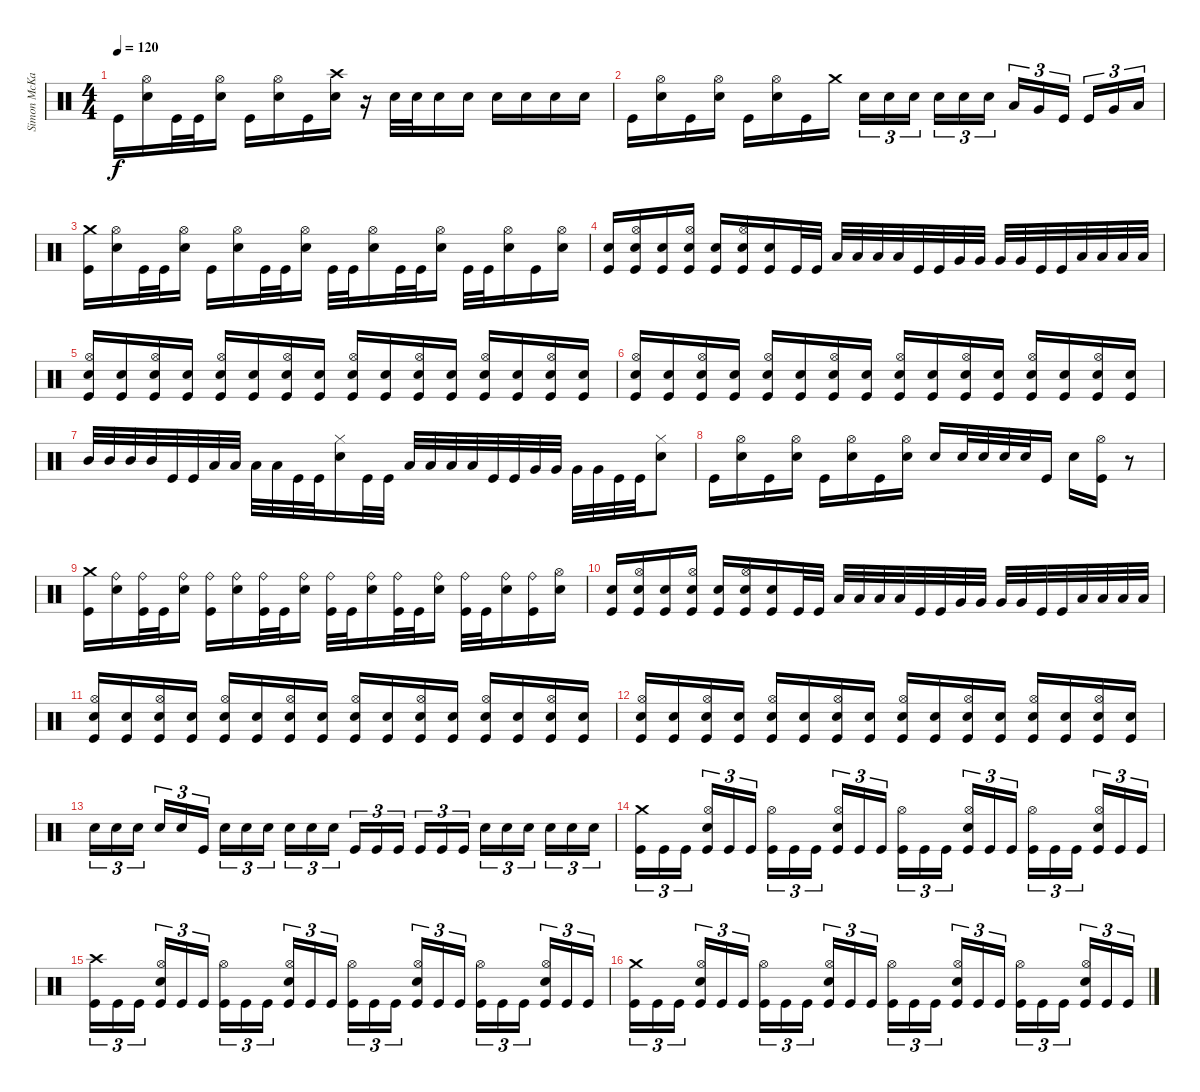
\track ("Simon McKay" "Simon McKa") {instrument percussion}
\staff {score}
\articulation defaults
\ts (4 4)
\tempo 120
\clef neutral
\ks c "Kick (hit)".16{dy f}
("Hi-Hat (open)" "Electric Snare (hit)").16 "Kick (hit)".32 "Kick (hit)".32 ("Hi-Hat (open)" "Electric Snare (hit)").16 "Kick (hit)".16 ("Hi-Hat (open)" "Electric Snare (hit)").16 "Kick (hit)".16 ("Crash high (hit)" "Electric Snare (hit)").16 r.16 "Electric Snare (hit)".32 "Electric Snare (hit)".32 "Electric Snare (hit)".16 "Electric Snare (hit)".16 "Electric Snare (hit)".16 "Electric Snare (hit)".16 "Electric Snare (hit)".16 "Electric Snare (hit)".16 |
"Kick (hit)".16 ("Hi-Hat (open)" "Electric Snare (hit)").16 "Kick (hit)".16 ("Hi-Hat (open)" "Electric Snare (hit)").16 "Kick (hit)".16 ("Hi-Hat (open)" "Electric Snare (hit)").16 "Kick (hit)".16 "Crash medium (hit)".16 "Electric Snare (hit)".16{tu (3 2)} "Electric Snare (hit)".16{tu (3 2)} "Electric Snare (hit)".16{tu (3 2) beam splitsecondary} "Electric Snare (hit)".16{tu (3 2)} "Electric Snare (hit)".16{tu (3 2)} "Electric Snare (hit)".16{tu (3 2)} "Low Tom (hit)".16{tu (3 2)} "Very Low Tom (hit)".16{tu (3 2)} "Kick (hit)".16{tu (3 2) beam splitsecondary} "Kick (hit)".16{tu (3 2)} "Very Low Tom (hit)".16{tu (3 2)} "Low Floor Tom (hit)".16{tu (3 2)} |
("Crash medium (hit)" "Kick (hit)").16 ("Hi-Hat (open)" "Electric Snare (hit)").16 "Kick (hit)".32 "Kick (hit)".32 ("Hi-Hat (open)" "Electric Snare (hit)").16 "Kick (hit)".16 ("Hi-Hat (open)" "Electric Snare (hit)").16 "Kick (hit)".32 "Kick (hit)".32 ("Hi-Hat (open)" "Electric Snare (hit)").16 "Kick (hit)".32 "Kick (hit)".32 ("Hi-Hat (open)" "Electric Snare (hit)").16 "Kick (hit)".32 "Kick (hit)".32 ("Hi-Hat (open)" "Electric Snare (hit)").16 "Kick (hit)".32 "Kick (hit)".32 ("Hi-Hat (open)" "Electric Snare (hit)").16 "Kick (hit)".16 ("Hi-Hat (open)" "Electric Snare (hit)").16 |
("Electric Snare (hit)" "Kick (hit)").16 ("Hi-Hat (open)" "Electric Snare (hit)" "Kick (hit)").16 ("Electric Snare (hit)" "Kick (hit)").16 ("Hi-Hat (open)" "Electric Snare (hit)" "Kick (hit)").16 ("Electric Snare (hit)" "Kick (hit)").16 ("Hi-Hat (open)" "Electric Snare (hit)" "Kick (hit)").16 ("Electric Snare (hit)" "Kick (hit)").16 "Kick (hit)".32 "Kick (hit)".32 "Low Tom (hit)".32 "Low Tom (hit)".32 "Low Tom (hit)".32 "Low Tom (hit)".32 "Kick (hit)".32 "Kick (hit)".32 "Very Low Tom (hit)".32 "Very Low Tom (hit)".32 "Very Low Tom (hit)".32 "Very Low Tom (hit)".32 "Kick (hit)".32 "Kick (hit)".32 "Low Floor Tom (hit)".32 "Low Floor Tom (hit)".32 "Low Floor Tom (hit)".32 "Low Floor Tom (hit)".32 |
("Hi-Hat (open)" "Electric Snare (hit)" "Kick (hit)").16 ("Electric Snare (hit)" "Kick (hit)").16 ("Hi-Hat (open)" "Electric Snare (hit)" "Kick (hit)").16 ("Electric Snare (hit)" "Kick (hit)").16 ("Hi-Hat (open)" "Electric Snare (hit)" "Kick (hit)").16 ("Electric Snare (hit)" "Kick (hit)").16 ("Hi-Hat (open)" "Electric Snare (hit)" "Kick (hit)").16 ("Electric Snare (hit)" "Kick (hit)").16 ("Hi-Hat (open)" "Electric Snare (hit)" "Kick (hit)").16 ("Electric Snare (hit)" "Kick (hit)").16 ("Hi-Hat (open)" "Electric Snare (hit)" "Kick (hit)").16 ("Electric Snare (hit)" "Kick (hit)").16 ("Hi-Hat (open)" "Electric Snare (hit)" "Kick (hit)").16 ("Electric Snare (hit)" "Kick (hit)").16 ("Hi-Hat (open)" "Electric Snare (hit)" "Kick (hit)").16 ("Electric Snare (hit)" "Kick (hit)").16 |
("Hi-Hat (open)" "Electric Snare (hit)" "Kick (hit)").16 ("Electric Snare (hit)" "Kick (hit)").16 ("Hi-Hat (open)" "Electric Snare (hit)" "Kick (hit)").16 ("Electric Snare (hit)" "Kick (hit)").16 ("Hi-Hat (open)" "Electric Snare (hit)" "Kick (hit)").16 ("Electric Snare (hit)" "Kick (hit)").16 ("Hi-Hat (open)" "Electric Snare (hit)" "Kick (hit)").16 ("Electric Snare (hit)" "Kick (hit)").16 ("Hi-Hat (open)" "Electric Snare (hit)" "Kick (hit)").16 ("Electric Snare (hit)" "Kick (hit)").16 ("Hi-Hat (open)" "Electric Snare (hit)" "Kick (hit)").16 ("Electric Snare (hit)" "Kick (hit)").16 ("Hi-Hat (open)" "Electric Snare (hit)" "Kick (hit)").16 ("Electric Snare (hit)" "Kick (hit)").16 ("Hi-Hat (open)" "Electric Snare (hit)" "Kick (hit)").16 ("Electric Snare (hit)" "Kick (hit)").16 |
"Mid Tom (hit)".32 "Mid Tom (hit)".32 "Mid Tom (hit)".32 "Mid Tom (hit)".32 "Kick (hit)".32 "Kick (hit)".32 "Low Tom (hit)".32 "Low Tom (hit)".32 "Low Tom (hit)".32 "Low Tom (hit)".32 "Kick (hit)".32 "Kick (hit)".32 ("Hi-Hat (closed)" "Electric Snare (hit)").16 "Kick (hit)".32 "Kick (hit)".32 "Low Tom (hit)".32 "Low Tom (hit)".32 "Low Tom (hit)".32 "Low Tom (hit)".32 "Kick (hit)".32 "Kick (hit)".32 "Very Low Tom (hit)".32 "Very Low Tom (hit)".32 "Very Low Tom (hit)".32 "Very Low Tom (hit)".32 "Kick (hit)".32 "Kick (hit)".32 ("Hi-Hat (closed)" "Electric Snare (hit)").8 |
"Kick (hit)".16 ("Hi-Hat (open)" "Electric Snare (hit)").16 "Kick (hit)".16 ("Hi-Hat (open)" "Electric Snare (hit)").16 "Kick (hit)".16 ("Hi-Hat (open)" "Electric Snare (hit)").16 "Kick (hit)".16 ("Hi-Hat (open)" "Electric Snare (hit)").16 "Electric Snare (hit)".16 "Electric Snare (hit)".32 "Electric Snare (hit)".32 "Electric Snare (hit)".32 "Electric Snare (hit)".32 "Kick (hit)".16 "Electric Snare (hit)".16 ("Hi-Hat (open)" "Kick (hit)").16 r.8 |
("Crash medium (hit)" "Kick (hit)").16 ("Ride (bell)" "Electric Snare (hit)").16 ("Ride (bell)" "Kick (hit)").32 "Kick (hit)".32 ("Ride (bell)" "Electric Snare (hit)").16 ("Ride (bell)" "Kick (hit)").16 ("Ride (bell)" "Electric Snare (hit)").16 ("Ride (bell)" "Kick (hit)").32 "Kick (hit)".32 ("Ride (bell)" "Electric Snare (hit)").16 ("Ride (bell)" "Kick (hit)").32 "Kick (hit)".32 ("Ride (bell)" "Electric Snare (hit)").16 ("Ride (bell)" "Kick (hit)").32 "Kick (hit)".32 ("Ride (bell)" "Electric Snare (hit)").16 ("Ride (bell)" "Kick (hit)").32 "Kick (hit)".32 ("Ride (bell)" "Electric Snare (hit)").16 ("Ride (bell)" "Kick (hit)").16 ("Hi-Hat (open)" "Electric Snare (hit)").16 |
("Electric Snare (hit)" "Kick (hit)").16 ("Hi-Hat (open)" "Electric Snare (hit)" "Kick (hit)").16 ("Electric Snare (hit)" "Kick (hit)").16 ("Hi-Hat (open)" "Electric Snare (hit)" "Kick (hit)").16 ("Electric Snare (hit)" "Kick (hit)").16 ("Hi-Hat (open)" "Electric Snare (hit)" "Kick (hit)").16 ("Electric Snare (hit)" "Kick (hit)").16 "Kick (hit)".32 "Kick (hit)".32 "Low Tom (hit)".32 "Low Tom (hit)".32 "Low Tom (hit)".32 "Low Tom (hit)".32 "Kick (hit)".32 "Kick (hit)".32 "Very Low Tom (hit)".32 "Very Low Tom (hit)".32 "Very Low Tom (hit)".32 "Very Low Tom (hit)".32 "Kick (hit)".32 "Kick (hit)".32 "Low Floor Tom (hit)".32 "Low Floor Tom (hit)".32 "Low Floor Tom (hit)".32 "Low Floor Tom (hit)".32 |
("Hi-Hat (open)" "Electric Snare (hit)" "Kick (hit)").16 ("Electric Snare (hit)" "Kick (hit)").16 ("Hi-Hat (open)" "Electric Snare (hit)" "Kick (hit)").16 ("Electric Snare (hit)" "Kick (hit)").16 ("Hi-Hat (open)" "Electric Snare (hit)" "Kick (hit)").16 ("Electric Snare (hit)" "Kick (hit)").16 ("Hi-Hat (open)" "Electric Snare (hit)" "Kick (hit)").16 ("Electric Snare (hit)" "Kick (hit)").16 ("Hi-Hat (open)" "Electric Snare (hit)" "Kick (hit)").16 ("Electric Snare (hit)" "Kick (hit)").16 ("Hi-Hat (open)" "Electric Snare (hit)" "Kick (hit)").16 ("Electric Snare (hit)" "Kick (hit)").16 ("Hi-Hat (open)" "Electric Snare (hit)" "Kick (hit)").16 ("Electric Snare (hit)" "Kick (hit)").16 ("Hi-Hat (open)" "Electric Snare (hit)" "Kick (hit)").16 ("Electric Snare (hit)" "Kick (hit)").16 |
("Hi-Hat (open)" "Electric Snare (hit)" "Kick (hit)").16 ("Electric Snare (hit)" "Kick (hit)").16 ("Hi-Hat (open)" "Electric Snare (hit)" "Kick (hit)").16 ("Electric Snare (hit)" "Kick (hit)").16 ("Hi-Hat (open)" "Electric Snare (hit)" "Kick (hit)").16 ("Electric Snare (hit)" "Kick (hit)").16 ("Hi-Hat (open)" "Electric Snare (hit)" "Kick (hit)").16 ("Electric Snare (hit)" "Kick (hit)").16 ("Hi-Hat (open)" "Electric Snare (hit)" "Kick (hit)").16 ("Electric Snare (hit)" "Kick (hit)").16 ("Hi-Hat (open)" "Electric Snare (hit)" "Kick (hit)").16 ("Electric Snare (hit)" "Kick (hit)").16 ("Hi-Hat (open)" "Electric Snare (hit)" "Kick (hit)").16 ("Electric Snare (hit)" "Kick (hit)").16 ("Hi-Hat (open)" "Electric Snare (hit)" "Kick (hit)").16 ("Electric Snare (hit)" "Kick (hit)").16 |
"Electric Snare (hit)".16{tu (3 2)} "Electric Snare (hit)".16{tu (3 2)} "Electric Snare (hit)".16{tu (3 2) beam splitsecondary} "Electric Snare (hit)".16{tu (3 2)} "Electric Snare (hit)".16{tu (3 2)} "Kick (hit)".16{tu (3 2)} "Electric Snare (hit)".16{tu (3 2)} "Electric Snare (hit)".16{tu (3 2)} "Electric Snare (hit)".16{tu (3 2) beam splitsecondary} "Electric Snare (hit)".16{tu (3 2)} "Electric Snare (hit)".16{tu (3 2)} "Electric Snare (hit)".16{tu (3 2)} "Kick (hit)".16{tu (3 2)} "Kick (hit)".16{tu (3 2)} "Kick (hit)".16{tu (3 2) beam splitsecondary} "Kick (hit)".16{tu (3 2)} "Kick (hit)".16{tu (3 2)} "Kick (hit)".16{tu (3 2)} "Electric Snare (hit)".16{tu (3 2)} "Electric Snare (hit)".16{tu (3 2)} "Electric Snare (hit)".16{tu (3 2) beam splitsecondary} "Electric Snare (hit)".16{tu (3 2)} "Electric Snare (hit)".16{tu (3 2)} "Electric Snare (hit)".16{tu (3 2)} |
("Crash medium (hit)" "Kick (hit)").16{tu (3 2)} "Kick (hit)".16{tu (3 2)} "Kick (hit)".16{tu (3 2) beam splitsecondary} ("Hi-Hat (open)" "Electric Snare (hit)" "Kick (hit)").16{tu (3 2)} "Kick (hit)".16{tu (3 2)} "Kick (hit)".16{tu (3 2)} ("Hi-Hat (open)" "Kick (hit)").16{tu (3 2)} "Kick (hit)".16{tu (3 2)} "Kick (hit)".16{tu (3 2) beam splitsecondary} ("Hi-Hat (open)" "Electric Snare (hit)" "Kick (hit)").16{tu (3 2)} "Kick (hit)".16{tu (3 2)} "Kick (hit)".16{tu (3 2)} ("Hi-Hat (open)" "Kick (hit)").16{tu (3 2)} "Kick (hit)".16{tu (3 2)} "Kick (hit)".16{tu (3 2) beam splitsecondary} ("Hi-Hat (open)" "Electric Snare (hit)" "Kick (hit)").16{tu (3 2)} "Kick (hit)".16{tu (3 2)} "Kick (hit)".16{tu (3 2)} ("Hi-Hat (open)" "Kick (hit)").16{tu (3 2)} "Kick (hit)".16{tu (3 2)} "Kick (hit)".16{tu (3 2) beam splitsecondary} ("Hi-Hat (open)" "Electric Snare (hit)" "Kick (hit)").16{tu (3 2)} "Kick (hit)".16{tu (3 2)} "Kick (hit)".16{tu (3 2)} |
("Crash high (hit)" "Kick (hit)").16{tu (3 2)} "Kick (hit)".16{tu (3 2)} "Kick (hit)".16{tu (3 2) beam splitsecondary} ("Hi-Hat (open)" "Electric Snare (hit)" "Kick (hit)").16{tu (3 2)} "Kick (hit)".16{tu (3 2)} "Kick (hit)".16{tu (3 2)} ("Hi-Hat (open)" "Kick (hit)").16{tu (3 2)} "Kick (hit)".16{tu (3 2)} "Kick (hit)".16{tu (3 2) beam splitsecondary} ("Hi-Hat (open)" "Electric Snare (hit)" "Kick (hit)").16{tu (3 2)} "Kick (hit)".16{tu (3 2)} "Kick (hit)".16{tu (3 2)} ("Hi-Hat (open)" "Kick (hit)").16{tu (3 2)} "Kick (hit)".16{tu (3 2)} "Kick (hit)".16{tu (3 2) beam splitsecondary} ("Hi-Hat (open)" "Electric Snare (hit)" "Kick (hit)").16{tu (3 2)} "Kick (hit)".16{tu (3 2)} "Kick (hit)".16{tu (3 2)} ("Hi-Hat (open)" "Kick (hit)").16{tu (3 2)} "Kick (hit)".16{tu (3 2)} "Kick (hit)".16{tu (3 2) beam splitsecondary} ("Hi-Hat (open)" "Electric Snare (hit)" "Kick (hit)").16{tu (3 2)} "Kick (hit)".16{tu (3 2)} "Kick (hit)".16{tu (3 2)} |
("Crash medium (hit)" "Kick (hit)").16{tu (3 2)} "Kick (hit)".16{tu (3 2)} "Kick (hit)".16{tu (3 2) beam splitsecondary} ("Hi-Hat (open)" "Electric Snare (hit)" "Kick (hit)").16{tu (3 2)} "Kick (hit)".16{tu (3 2)} "Kick (hit)".16{tu (3 2)} ("Hi-Hat (open)" "Kick (hit)").16{tu (3 2)} "Kick (hit)".16{tu (3 2)} "Kick (hit)".16{tu (3 2) beam splitsecondary} ("Hi-Hat (open)" "Electric Snare (hit)" "Kick (hit)").16{tu (3 2)} "Kick (hit)".16{tu (3 2)} "Kick (hit)".16{tu (3 2)} ("Hi-Hat (open)" "Kick (hit)").16{tu (3 2)} "Kick (hit)".16{tu (3 2)} "Kick (hit)".16{tu (3 2) beam splitsecondary} ("Hi-Hat (open)" "Electric Snare (hit)" "Kick (hit)").16{tu (3 2)} "Kick (hit)".16{tu (3 2)} "Kick (hit)".16{tu (3 2)} ("Hi-Hat (open)" "Kick (hit)").16{tu (3 2)} "Kick (hit)".16{tu (3 2)} "Kick (hit)".16{tu (3 2) beam splitsecondary} ("Hi-Hat (open)" "Electric Snare (hit)" "Kick (hit)").16{tu (3 2)} "Kick (hit)".16{tu (3 2)} "Kick (hit)".16{tu (3 2)}
